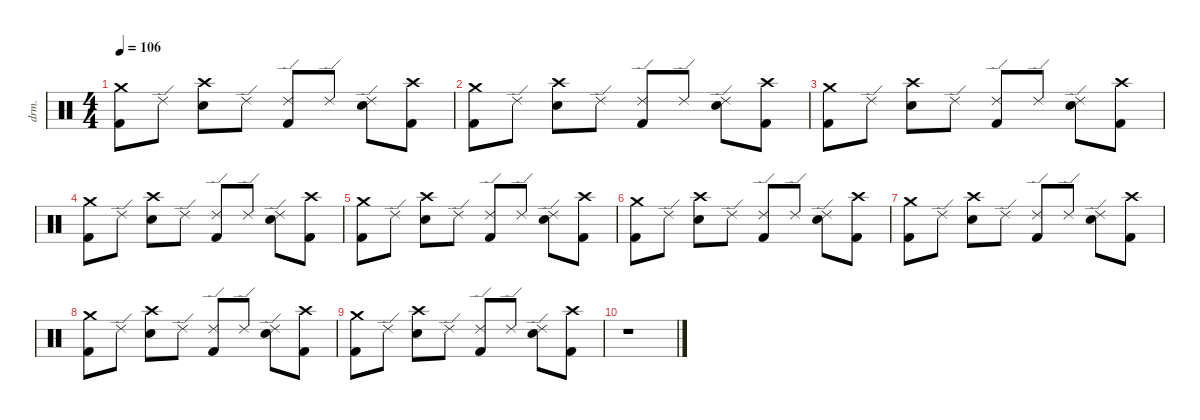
\defaultSystemsLayout 4
\hideDynamics
\bracketExtendMode nobrackets
\track ("Lee Kerslake" "drm.") {solo instrument percussion}
\staff {score}
\articulation defaults
\ts (4 4)
\tempo 106
\clef neutral
\ks c
("Crash medium (hit)" "Kick (hit) 2").8{dy f} "Ride (edge) 2".8 ("Crash high (hit)" "Snare (hit) 2").8 "Ride (edge) 2".8 ("Ride (edge) 2" "Kick (hit) 2").8 "Ride (edge) 2".8 ("Ride (edge) 2" "Snare (hit) 2").8 ("Crash high (hit)" "Kick (hit) 2").8 |
("Crash medium (hit)" "Kick (hit) 2").8 "Ride (edge) 2".8 ("Crash high (hit)" "Snare (hit) 2").8 "Ride (edge) 2".8 ("Ride (edge) 2" "Kick (hit) 2").8 "Ride (edge) 2".8 ("Ride (edge) 2" "Snare (hit) 2").8 ("Crash high (hit)" "Kick (hit) 2").8 |
("Crash medium (hit)" "Kick (hit) 2").8 "Ride (edge) 2".8 ("Crash high (hit)" "Snare (hit) 2").8 "Ride (edge) 2".8 ("Ride (edge) 2" "Kick (hit) 2").8 "Ride (edge) 2".8 ("Ride (edge) 2" "Snare (hit) 2").8 ("Crash high (hit)" "Kick (hit) 2").8 |
("Crash medium (hit)" "Kick (hit) 2").8 "Ride (edge) 2".8 ("Crash high (hit)" "Snare (hit) 2").8 "Ride (edge) 2".8 ("Ride (edge) 2" "Kick (hit) 2").8 "Ride (edge) 2".8 ("Ride (edge) 2" "Snare (hit) 2").8 ("Crash high (hit)" "Kick (hit) 2").8 |
("Crash medium (hit)" "Kick (hit) 2").8 "Ride (edge) 2".8 ("Crash high (hit)" "Snare (hit) 2").8 "Ride (edge) 2".8 ("Ride (edge) 2" "Kick (hit) 2").8 "Ride (edge) 2".8 ("Ride (edge) 2" "Snare (hit) 2").8 ("Crash high (hit)" "Kick (hit) 2").8 |
("Crash medium (hit)" "Kick (hit) 2").8 "Ride (edge) 2".8 ("Crash high (hit)" "Snare (hit) 2").8 "Ride (edge) 2".8 ("Ride (edge) 2" "Kick (hit) 2").8 "Ride (edge) 2".8 ("Ride (edge) 2" "Snare (hit) 2").8 ("Crash high (hit)" "Kick (hit) 2").8 |
("Crash medium (hit)" "Kick (hit) 2").8 "Ride (edge) 2".8 ("Crash high (hit)" "Snare (hit) 2").8 "Ride (edge) 2".8 ("Ride (edge) 2" "Kick (hit) 2").8 "Ride (edge) 2".8 ("Ride (edge) 2" "Snare (hit) 2").8 ("Crash high (hit)" "Kick (hit) 2").8 |
("Crash medium (hit)" "Kick (hit) 2").8 "Ride (edge) 2".8 ("Crash high (hit)" "Snare (hit) 2").8 "Ride (edge) 2".8 ("Ride (edge) 2" "Kick (hit) 2").8 "Ride (edge) 2".8 ("Ride (edge) 2" "Snare (hit) 2").8 ("Crash high (hit)" "Kick (hit) 2").8 |
("Crash medium (hit)" "Kick (hit) 2").8 "Ride (edge) 2".8 ("Crash high (hit)" "Snare (hit) 2").8 "Ride (edge) 2".8 ("Ride (edge) 2" "Kick (hit) 2").8 "Ride (edge) 2".8 ("Ride (edge) 2" "Snare (hit) 2").8 ("Crash high (hit)" "Kick (hit) 2").8 |
r.1
